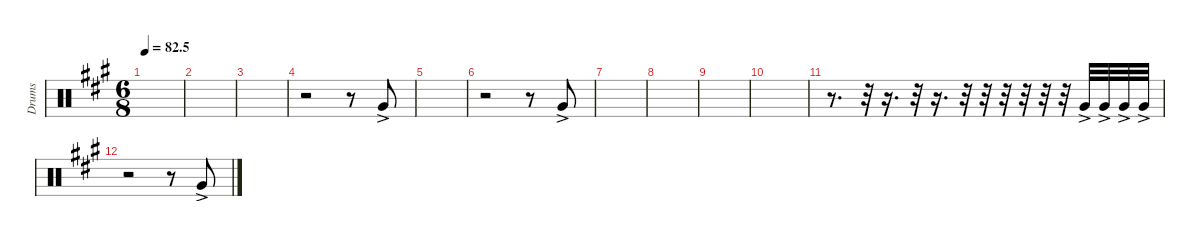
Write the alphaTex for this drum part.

\defaultSystemsLayout 4
\hideDynamics
\bracketExtendMode nobrackets
\otherSystemsTrackNameOrientation horizontal
\track ("Tom 04" "Drums") {instrument percussion}
\staff {score}
\articulation defaults
\ts (6 8)
\tempo
82.5
\accidentals auto
\clef neutral
\ottava regular
\simile none
\scale
0.333333
\ks a
|
\scale
0.333333 |
\scale
0.333333 |
\scale
0.333333 r.2 r.8 "Very Low Tom (hit)"{ac acc forcenatural}.8 |
\scale
0.333333 |
\scale
0.333333 r.2 r.8 "Very Low Tom (hit)"{ac acc forcenatural}.8 |
\scale
0.333333 |
\scale
0.333333 |
\scale
0.333333 |
\scale
0.333333 |
\scale
0.333333 r.8{d} r.32 r.16{d} r.32 r.16{d} r.32 r.32 r.32 r.32 r.32 r.32 "Very Low Tom (hit)"{ac acc forcenatural}.32 "Very Low Tom (hit)"{ac acc forcenatural}.32 "Very Low Tom (hit)"{ac acc forcenatural}.32 "Very Low Tom (hit)"{ac acc forcenatural}.32 |
\scale
0.333333 r.2 r.8 "Very Low Tom (hit)"{ac acc forcenatural}.8 |
\scale
0.333333 |
\scale
0.333333 |
\scale
0.333333 |
\scale
0.333333
